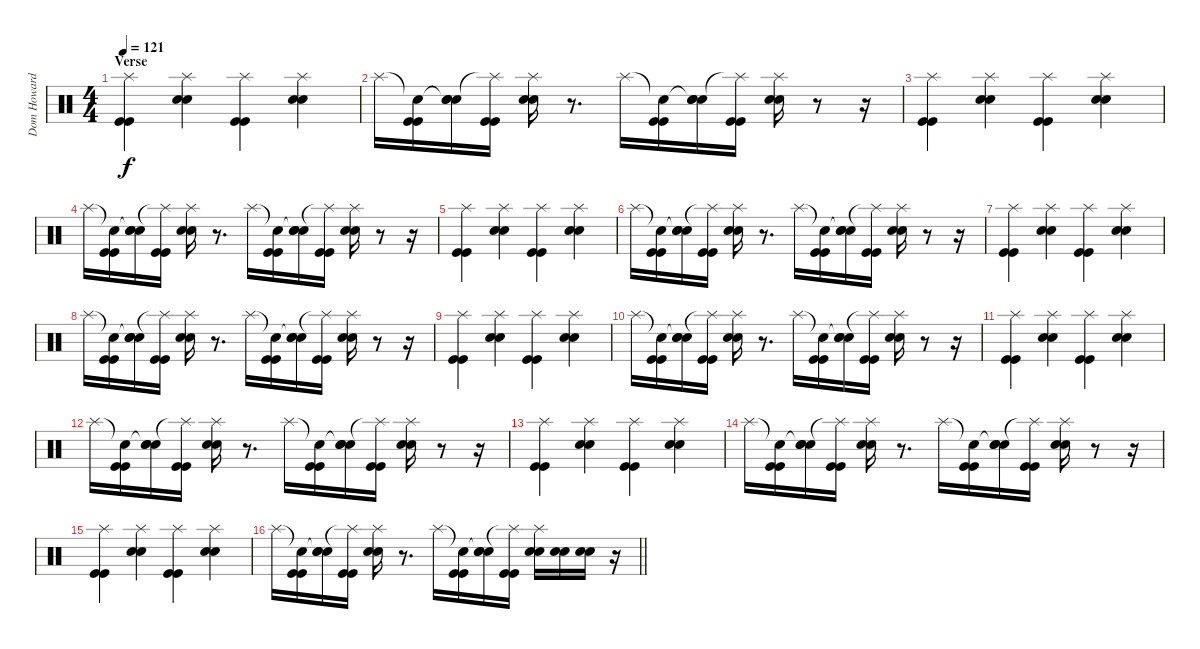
\track ("Dom Howard - Drums" "Dom Howard") {instrument percussion}
\staff {score}
\articulation defaults
\ts (4 4)
\section ("" "Verse")
\tempo 121
\clef neutral
\ks c
("Splash (hit)" "Kick (hit)" "Kick (hit)").4{dy f} ("Splash (hit)" "Electric Snare (hit)" "Electric Snare (hit)").4 ("Splash (hit)" "Kick (hit)" "Kick (hit)").4 ("Splash (hit)" "Electric Snare (hit)" "Electric Snare (hit)").4 |
"Splash (hit)".16 ("Snare (hit)"{t} "Kick (hit)" "Kick (hit)").16 ("Snare (hit)"{t} "Electric Snare (hit)" "Electric Snare (hit)").16 ("Splash (hit)"{t} "Kick (hit)" "Kick (hit)").16 ("Splash (hit)" "Electric Snare (hit)" "Electric Snare (hit)").16 r.8{d} "Splash (hit)".16 ("Snare (hit)"{t} "Kick (hit)" "Kick (hit)").16 ("Snare (hit)"{t} "Electric Snare (hit)" "Electric Snare (hit)").16 ("Splash (hit)"{t} "Kick (hit)" "Kick (hit)").16 ("Splash (hit)" "Electric Snare (hit)" "Electric Snare (hit)").16 r.8 r.16 |
("Splash (hit)" "Kick (hit)" "Kick (hit)").4 ("Splash (hit)" "Electric Snare (hit)" "Electric Snare (hit)").4 ("Splash (hit)" "Kick (hit)" "Kick (hit)").4 ("Splash (hit)" "Electric Snare (hit)" "Electric Snare (hit)").4 |
"Splash (hit)".16 ("Snare (hit)"{t} "Kick (hit)" "Kick (hit)").16 ("Snare (hit)"{t} "Electric Snare (hit)" "Electric Snare (hit)").16 ("Splash (hit)"{t} "Kick (hit)" "Kick (hit)").16 ("Splash (hit)" "Electric Snare (hit)" "Electric Snare (hit)").16 r.8{d} "Splash (hit)".16 ("Snare (hit)"{t} "Kick (hit)" "Kick (hit)").16 ("Snare (hit)"{t} "Electric Snare (hit)" "Electric Snare (hit)").16 ("Splash (hit)"{t} "Kick (hit)" "Kick (hit)").16 ("Splash (hit)" "Electric Snare (hit)" "Electric Snare (hit)").16 r.8 r.16 |
("Splash (hit)" "Kick (hit)" "Kick (hit)").4 ("Splash (hit)" "Electric Snare (hit)" "Electric Snare (hit)").4 ("Splash (hit)" "Kick (hit)" "Kick (hit)").4 ("Splash (hit)" "Electric Snare (hit)" "Electric Snare (hit)").4 |
"Splash (hit)".16 ("Snare (hit)"{t} "Kick (hit)" "Kick (hit)").16 ("Snare (hit)"{t} "Electric Snare (hit)" "Electric Snare (hit)").16 ("Splash (hit)"{t} "Kick (hit)" "Kick (hit)").16 ("Splash (hit)" "Electric Snare (hit)" "Electric Snare (hit)").16 r.8{d} "Splash (hit)".16 ("Snare (hit)"{t} "Kick (hit)" "Kick (hit)").16 ("Snare (hit)"{t} "Electric Snare (hit)" "Electric Snare (hit)").16 ("Splash (hit)"{t} "Kick (hit)" "Kick (hit)").16 ("Splash (hit)" "Electric Snare (hit)" "Electric Snare (hit)").16 r.8 r.16 |
("Splash (hit)" "Kick (hit)" "Kick (hit)").4 ("Splash (hit)" "Electric Snare (hit)" "Electric Snare (hit)").4 ("Splash (hit)" "Kick (hit)" "Kick (hit)").4 ("Splash (hit)" "Electric Snare (hit)" "Electric Snare (hit)").4 |
"Splash (hit)".16 ("Snare (hit)"{t} "Kick (hit)" "Kick (hit)").16 ("Snare (hit)"{t} "Electric Snare (hit)" "Electric Snare (hit)").16 ("Splash (hit)"{t} "Kick (hit)" "Kick (hit)").16 ("Splash (hit)" "Electric Snare (hit)" "Electric Snare (hit)").16 r.8{d} "Splash (hit)".16 ("Snare (hit)"{t} "Kick (hit)" "Kick (hit)").16 ("Snare (hit)"{t} "Electric Snare (hit)" "Electric Snare (hit)").16 ("Splash (hit)"{t} "Kick (hit)" "Kick (hit)").16 ("Splash (hit)" "Electric Snare (hit)" "Electric Snare (hit)").16 r.8 r.16 |
("Splash (hit)" "Kick (hit)" "Kick (hit)").4 ("Splash (hit)" "Electric Snare (hit)" "Electric Snare (hit)").4 ("Splash (hit)" "Kick (hit)" "Kick (hit)").4 ("Splash (hit)" "Electric Snare (hit)" "Electric Snare (hit)").4 |
"Splash (hit)".16 ("Snare (hit)"{t} "Kick (hit)" "Kick (hit)").16 ("Snare (hit)"{t} "Electric Snare (hit)" "Electric Snare (hit)").16 ("Splash (hit)"{t} "Kick (hit)" "Kick (hit)").16 ("Splash (hit)" "Electric Snare (hit)" "Electric Snare (hit)").16 r.8{d} "Splash (hit)".16 ("Snare (hit)"{t} "Kick (hit)" "Kick (hit)").16 ("Snare (hit)"{t} "Electric Snare (hit)" "Electric Snare (hit)").16 ("Splash (hit)"{t} "Kick (hit)" "Kick (hit)").16 ("Splash (hit)" "Electric Snare (hit)" "Electric Snare (hit)").16 r.8 r.16 |
("Splash (hit)" "Kick (hit)" "Kick (hit)").4 ("Splash (hit)" "Electric Snare (hit)" "Electric Snare (hit)").4 ("Splash (hit)" "Kick (hit)" "Kick (hit)").4 ("Splash (hit)" "Electric Snare (hit)" "Electric Snare (hit)").4 |
"Splash (hit)".16 ("Snare (hit)"{t} "Kick (hit)" "Kick (hit)").16 ("Snare (hit)"{t} "Electric Snare (hit)" "Electric Snare (hit)").16 ("Splash (hit)"{t} "Kick (hit)" "Kick (hit)").16 ("Splash (hit)" "Electric Snare (hit)" "Electric Snare (hit)").16 r.8{d} "Splash (hit)".16 ("Snare (hit)"{t} "Kick (hit)" "Kick (hit)").16 ("Snare (hit)"{t} "Electric Snare (hit)" "Electric Snare (hit)").16 ("Splash (hit)"{t} "Kick (hit)" "Kick (hit)").16 ("Splash (hit)" "Electric Snare (hit)" "Electric Snare (hit)").16 r.8 r.16 |
("Splash (hit)" "Kick (hit)" "Kick (hit)").4 ("Splash (hit)" "Electric Snare (hit)" "Electric Snare (hit)").4 ("Splash (hit)" "Kick (hit)" "Kick (hit)").4 ("Splash (hit)" "Electric Snare (hit)" "Electric Snare (hit)").4 |
"Splash (hit)".16 ("Snare (hit)"{t} "Kick (hit)" "Kick (hit)").16 ("Snare (hit)"{t} "Electric Snare (hit)" "Electric Snare (hit)").16 ("Splash (hit)"{t} "Kick (hit)" "Kick (hit)").16 ("Splash (hit)" "Electric Snare (hit)" "Electric Snare (hit)").16 r.8{d} "Splash (hit)".16 ("Snare (hit)"{t} "Kick (hit)" "Kick (hit)").16 ("Snare (hit)"{t} "Electric Snare (hit)" "Electric Snare (hit)").16 ("Splash (hit)"{t} "Kick (hit)" "Kick (hit)").16 ("Splash (hit)" "Electric Snare (hit)" "Electric Snare (hit)").16 r.8 r.16 |
("Splash (hit)" "Kick (hit)" "Kick (hit)").4 ("Splash (hit)" "Electric Snare (hit)" "Electric Snare (hit)").4 ("Splash (hit)" "Kick (hit)" "Kick (hit)").4 ("Splash (hit)" "Electric Snare (hit)" "Electric Snare (hit)").4 |
\barLineRight lightlight "Splash (hit)".16
("Snare (hit)"{t} "Kick (hit)" "Kick (hit)").16 ("Snare (hit)"{t} "Electric Snare (hit)" "Electric Snare (hit)").16 ("Splash (hit)"{t} "Kick (hit)" "Kick (hit)").16 ("Splash (hit)" "Electric Snare (hit)" "Electric Snare (hit)").16 r.8{d} "Splash (hit)".16 ("Snare (hit)"{t} "Kick (hit)" "Kick (hit)").16 ("Snare (hit)"{t} "Electric Snare (hit)" "Electric Snare (hit)").16 ("Splash (hit)"{t} "Kick (hit)" "Kick (hit)").16 ("Splash (hit)" "Electric Snare (hit)" "Electric Snare (hit)").16 ("Electric Snare (hit)" "Electric Snare (hit)").16 ("Electric Snare (hit)" "Electric Snare (hit)").16 r.16
